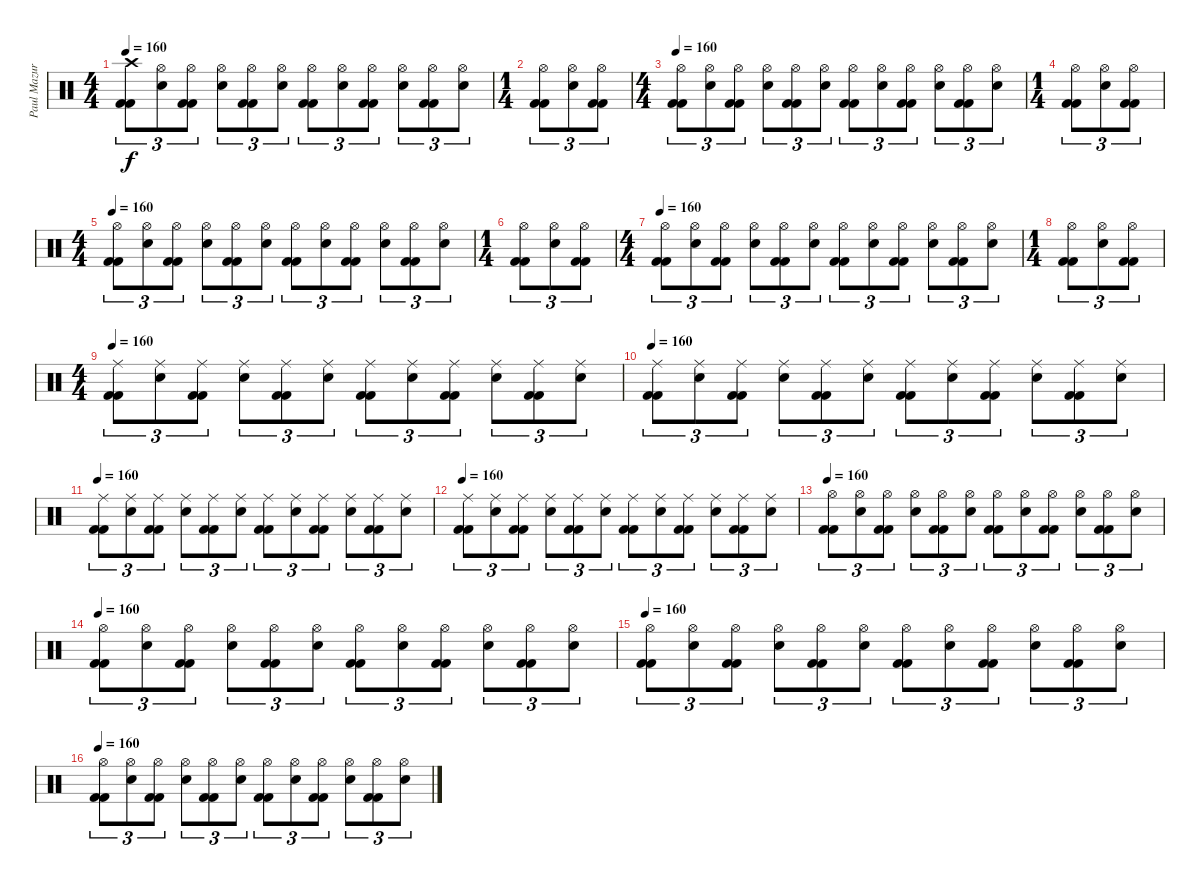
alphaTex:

\track ("Paul Mazurkiewicz" "Paul Mazur") {instrument percussion}
\staff {score}
\articulation defaults
\ts (4 4)
\tempo 160
\clef neutral
\ks c
("Kick (hit) 2" "Crash high (hit)" "Kick (hit) 2").8{tu (3 2) dy f} ("Hi-Hat (open)" "Snare (hit) 2").8{tu (3 2)} ("Kick (hit) 2" "Hi-Hat (open)" "Kick (hit) 2").8{tu (3 2)} ("Hi-Hat (open)" "Snare (hit) 2").8{tu (3 2)} ("Kick (hit) 2" "Hi-Hat (open)" "Kick (hit) 2").8{tu (3 2)} ("Hi-Hat (open)" "Snare (hit) 2").8{tu (3 2)} ("Kick (hit) 2" "Hi-Hat (open)" "Kick (hit) 2").8{tu (3 2)} ("Hi-Hat (open)" "Snare (hit) 2").8{tu (3 2)} ("Kick (hit) 2" "Hi-Hat (open)" "Kick (hit) 2").8{tu (3 2)} ("Hi-Hat (open)" "Snare (hit) 2").8{tu (3 2)} ("Kick (hit) 2" "Hi-Hat (open)" "Kick (hit) 2").8{tu (3 2)} ("Hi-Hat (open)" "Snare (hit) 2").8{tu (3 2)} |
\ts (1 4)
("Kick (hit) 2" "Hi-Hat (open)" "Kick (hit) 2").8{tu (3 2)} ("Hi-Hat (open)" "Snare (hit) 2").8{tu (3 2)} ("Kick (hit) 2" "Hi-Hat (open)" "Kick (hit) 2").8{tu (3 2)} |
\ts (4 4)
\tempo 160
("Kick (hit) 2" "Hi-Hat (open)" "Kick (hit) 2").8{tu (3 2)} ("Hi-Hat (open)" "Snare (hit) 2").8{tu (3 2)} ("Kick (hit) 2" "Hi-Hat (open)" "Kick (hit) 2").8{tu (3 2)} ("Hi-Hat (open)" "Snare (hit) 2").8{tu (3 2)} ("Kick (hit) 2" "Hi-Hat (open)" "Kick (hit) 2").8{tu (3 2)} ("Hi-Hat (open)" "Snare (hit) 2").8{tu (3 2)} ("Kick (hit) 2" "Hi-Hat (open)" "Kick (hit) 2").8{tu (3 2)} ("Hi-Hat (open)" "Snare (hit) 2").8{tu (3 2)} ("Kick (hit) 2" "Hi-Hat (open)" "Kick (hit) 2").8{tu (3 2)} ("Hi-Hat (open)" "Snare (hit) 2").8{tu (3 2)} ("Kick (hit) 2" "Hi-Hat (open)" "Kick (hit) 2").8{tu (3 2)} ("Hi-Hat (open)" "Snare (hit) 2").8{tu (3 2)} |
\ts (1 4)
("Kick (hit) 2" "Hi-Hat (open)" "Kick (hit) 2").8{tu (3 2)} ("Hi-Hat (open)" "Snare (hit) 2").8{tu (3 2)} ("Kick (hit) 2" "Hi-Hat (open)" "Kick (hit) 2").8{tu (3 2)} |
\ts (4 4)
\tempo 160
("Kick (hit) 2" "Hi-Hat (open)" "Kick (hit) 2").8{tu (3 2)} ("Hi-Hat (open)" "Snare (hit) 2").8{tu (3 2)} ("Kick (hit) 2" "Hi-Hat (open)" "Kick (hit) 2").8{tu (3 2)} ("Hi-Hat (open)" "Snare (hit) 2").8{tu (3 2)} ("Kick (hit) 2" "Hi-Hat (open)" "Kick (hit) 2").8{tu (3 2)} ("Hi-Hat (open)" "Snare (hit) 2").8{tu (3 2)} ("Kick (hit) 2" "Hi-Hat (open)" "Kick (hit) 2").8{tu (3 2)} ("Hi-Hat (open)" "Snare (hit) 2").8{tu (3 2)} ("Kick (hit) 2" "Hi-Hat (open)" "Kick (hit) 2").8{tu (3 2)} ("Hi-Hat (open)" "Snare (hit) 2").8{tu (3 2)} ("Kick (hit) 2" "Hi-Hat (open)" "Kick (hit) 2").8{tu (3 2)} ("Hi-Hat (open)" "Snare (hit) 2").8{tu (3 2)} |
\ts (1 4)
("Kick (hit) 2" "Hi-Hat (open)" "Kick (hit) 2").8{tu (3 2)} ("Hi-Hat (open)" "Snare (hit) 2").8{tu (3 2)} ("Kick (hit) 2" "Hi-Hat (open)" "Kick (hit) 2").8{tu (3 2)} |
\ts (4 4)
\tempo 160
("Kick (hit) 2" "Hi-Hat (open)" "Kick (hit) 2").8{tu (3 2)} ("Hi-Hat (open)" "Snare (hit) 2").8{tu (3 2)} ("Kick (hit) 2" "Hi-Hat (open)" "Kick (hit) 2").8{tu (3 2)} ("Hi-Hat (open)" "Snare (hit) 2").8{tu (3 2)} ("Kick (hit) 2" "Hi-Hat (open)" "Kick (hit) 2").8{tu (3 2)} ("Hi-Hat (open)" "Snare (hit) 2").8{tu (3 2)} ("Kick (hit) 2" "Hi-Hat (open)" "Kick (hit) 2").8{tu (3 2)} ("Hi-Hat (open)" "Snare (hit) 2").8{tu (3 2)} ("Kick (hit) 2" "Hi-Hat (open)" "Kick (hit) 2").8{tu (3 2)} ("Hi-Hat (open)" "Snare (hit) 2").8{tu (3 2)} ("Kick (hit) 2" "Hi-Hat (open)" "Kick (hit) 2").8{tu (3 2)} ("Hi-Hat (open)" "Snare (hit) 2").8{tu (3 2)} |
\ts (1 4)
("Kick (hit) 2" "Hi-Hat (open)" "Kick (hit) 2").8{tu (3 2)} ("Hi-Hat (open)" "Snare (hit) 2").8{tu (3 2)} ("Kick (hit) 2" "Hi-Hat (open)" "Kick (hit) 2").8{tu (3 2)} |
\ts (4 4)
\tempo 160
("Kick (hit) 2" "Ride (middle)" "Kick (hit) 2").8{tu (3 2)} ("Ride (middle)" "Snare (hit) 2").8{tu (3 2)} ("Kick (hit) 2" "Ride (middle)" "Kick (hit) 2").8{tu (3 2)} ("Ride (middle)" "Snare (hit) 2").8{tu (3 2)} ("Kick (hit) 2" "Ride (middle)" "Kick (hit) 2").8{tu (3 2)} ("Ride (middle)" "Snare (hit) 2").8{tu (3 2)} ("Kick (hit) 2" "Ride (middle)" "Kick (hit) 2").8{tu (3 2)} ("Ride (middle)" "Snare (hit) 2").8{tu (3 2)} ("Kick (hit) 2" "Ride (middle)" "Kick (hit) 2").8{tu (3 2)} ("Ride (middle)" "Snare (hit) 2").8{tu (3 2)} ("Kick (hit) 2" "Ride (middle)" "Kick (hit) 2").8{tu (3 2)} ("Ride (middle)" "Snare (hit) 2").8{tu (3 2)} |
\tempo 160
("Kick (hit) 2" "Ride (middle)" "Kick (hit) 2").8{tu (3 2)} ("Ride (middle)" "Snare (hit) 2").8{tu (3 2)} ("Kick (hit) 2" "Ride (middle)" "Kick (hit) 2").8{tu (3 2)} ("Ride (middle)" "Snare (hit) 2").8{tu (3 2)} ("Kick (hit) 2" "Ride (middle)" "Kick (hit) 2").8{tu (3 2)} ("Ride (middle)" "Snare (hit) 2").8{tu (3 2)} ("Kick (hit) 2" "Ride (middle)" "Kick (hit) 2").8{tu (3 2)} ("Ride (middle)" "Snare (hit) 2").8{tu (3 2)} ("Kick (hit) 2" "Ride (middle)" "Kick (hit) 2").8{tu (3 2)} ("Ride (middle)" "Snare (hit) 2").8{tu (3 2)} ("Kick (hit) 2" "Ride (middle)" "Kick (hit) 2").8{tu (3 2)} ("Ride (middle)" "Snare (hit) 2").8{tu (3 2)} |
\tempo 160
("Kick (hit) 2" "Ride (middle)" "Kick (hit) 2").8{tu (3 2)} ("Ride (middle)" "Snare (hit) 2").8{tu (3 2)} ("Kick (hit) 2" "Ride (middle)" "Kick (hit) 2").8{tu (3 2)} ("Ride (middle)" "Snare (hit) 2").8{tu (3 2)} ("Kick (hit) 2" "Ride (middle)" "Kick (hit) 2").8{tu (3 2)} ("Ride (middle)" "Snare (hit) 2").8{tu (3 2)} ("Kick (hit) 2" "Ride (middle)" "Kick (hit) 2").8{tu (3 2)} ("Ride (middle)" "Snare (hit) 2").8{tu (3 2)} ("Kick (hit) 2" "Ride (middle)" "Kick (hit) 2").8{tu (3 2)} ("Ride (middle)" "Snare (hit) 2").8{tu (3 2)} ("Kick (hit) 2" "Ride (middle)" "Kick (hit) 2").8{tu (3 2)} ("Ride (middle)" "Snare (hit) 2").8{tu (3 2)} |
\tempo 160
("Kick (hit) 2" "Ride (middle)" "Kick (hit) 2").8{tu (3 2)} ("Ride (middle)" "Snare (hit) 2").8{tu (3 2)} ("Kick (hit) 2" "Ride (middle)" "Kick (hit) 2").8{tu (3 2)} ("Ride (middle)" "Snare (hit) 2").8{tu (3 2)} ("Kick (hit) 2" "Ride (middle)" "Kick (hit) 2").8{tu (3 2)} ("Ride (middle)" "Snare (hit) 2").8{tu (3 2)} ("Kick (hit) 2" "Ride (middle)" "Kick (hit) 2").8{tu (3 2)} ("Ride (middle)" "Snare (hit) 2").8{tu (3 2)} ("Kick (hit) 2" "Ride (middle)" "Kick (hit) 2").8{tu (3 2)} ("Ride (middle)" "Snare (hit) 2").8{tu (3 2)} ("Kick (hit) 2" "Ride (middle)" "Kick (hit) 2").8{tu (3 2)} ("Ride (middle)" "Snare (hit) 2").8{tu (3 2)} |
\tempo 160
("Kick (hit) 2" "Hi-Hat (open)" "Kick (hit) 2").8{tu (3 2)} ("Hi-Hat (open)" "Snare (hit) 2").8{tu (3 2)} ("Kick (hit) 2" "Hi-Hat (open)" "Kick (hit) 2").8{tu (3 2)} ("Hi-Hat (open)" "Snare (hit) 2").8{tu (3 2)} ("Kick (hit) 2" "Hi-Hat (open)" "Kick (hit) 2").8{tu (3 2)} ("Hi-Hat (open)" "Snare (hit) 2").8{tu (3 2)} ("Kick (hit) 2" "Hi-Hat (open)" "Kick (hit) 2").8{tu (3 2)} ("Hi-Hat (open)" "Snare (hit) 2").8{tu (3 2)} ("Kick (hit) 2" "Hi-Hat (open)" "Kick (hit) 2").8{tu (3 2)} ("Hi-Hat (open)" "Snare (hit) 2").8{tu (3 2)} ("Kick (hit) 2" "Hi-Hat (open)" "Kick (hit) 2").8{tu (3 2)} ("Hi-Hat (open)" "Snare (hit) 2").8{tu (3 2)} |
\tempo 160
("Kick (hit) 2" "Hi-Hat (open)" "Kick (hit) 2").8{tu (3 2)} ("Hi-Hat (open)" "Snare (hit) 2").8{tu (3 2)} ("Kick (hit) 2" "Hi-Hat (open)" "Kick (hit) 2").8{tu (3 2)} ("Hi-Hat (open)" "Snare (hit) 2").8{tu (3 2)} ("Kick (hit) 2" "Hi-Hat (open)" "Kick (hit) 2").8{tu (3 2)} ("Hi-Hat (open)" "Snare (hit) 2").8{tu (3 2)} ("Kick (hit) 2" "Hi-Hat (open)" "Kick (hit) 2").8{tu (3 2)} ("Hi-Hat (open)" "Snare (hit) 2").8{tu (3 2)} ("Kick (hit) 2" "Hi-Hat (open)" "Kick (hit) 2").8{tu (3 2)} ("Hi-Hat (open)" "Snare (hit) 2").8{tu (3 2)} ("Kick (hit) 2" "Hi-Hat (open)" "Kick (hit) 2").8{tu (3 2)} ("Hi-Hat (open)" "Snare (hit) 2").8{tu (3 2)} |
\tempo 160
("Kick (hit) 2" "Hi-Hat (open)" "Kick (hit) 2").8{tu (3 2)} ("Hi-Hat (open)" "Snare (hit) 2").8{tu (3 2)} ("Kick (hit) 2" "Hi-Hat (open)" "Kick (hit) 2").8{tu (3 2)} ("Hi-Hat (open)" "Snare (hit) 2").8{tu (3 2)} ("Kick (hit) 2" "Hi-Hat (open)" "Kick (hit) 2").8{tu (3 2)} ("Hi-Hat (open)" "Snare (hit) 2").8{tu (3 2)} ("Kick (hit) 2" "Hi-Hat (open)" "Kick (hit) 2").8{tu (3 2)} ("Hi-Hat (open)" "Snare (hit) 2").8{tu (3 2)} ("Kick (hit) 2" "Hi-Hat (open)" "Kick (hit) 2").8{tu (3 2)} ("Hi-Hat (open)" "Snare (hit) 2").8{tu (3 2)} ("Kick (hit) 2" "Hi-Hat (open)" "Kick (hit) 2").8{tu (3 2)} ("Hi-Hat (open)" "Snare (hit) 2").8{tu (3 2)} |
\tempo 160
("Kick (hit) 2" "Hi-Hat (open)" "Kick (hit) 2").8{tu (3 2)} ("Hi-Hat (open)" "Snare (hit) 2").8{tu (3 2)} ("Kick (hit) 2" "Hi-Hat (open)" "Kick (hit) 2").8{tu (3 2)} ("Hi-Hat (open)" "Snare (hit) 2").8{tu (3 2)} ("Kick (hit) 2" "Hi-Hat (open)" "Kick (hit) 2").8{tu (3 2)} ("Hi-Hat (open)" "Snare (hit) 2").8{tu (3 2)} ("Kick (hit) 2" "Hi-Hat (open)" "Kick (hit) 2").8{tu (3 2)} ("Hi-Hat (open)" "Snare (hit) 2").8{tu (3 2)} ("Kick (hit) 2" "Hi-Hat (open)" "Kick (hit) 2").8{tu (3 2)} ("Hi-Hat (open)" "Snare (hit) 2").8{tu (3 2)} ("Kick (hit) 2" "Hi-Hat (open)" "Kick (hit) 2").8{tu (3 2)} ("Hi-Hat (open)" "Snare (hit) 2").8{tu (3 2)}
